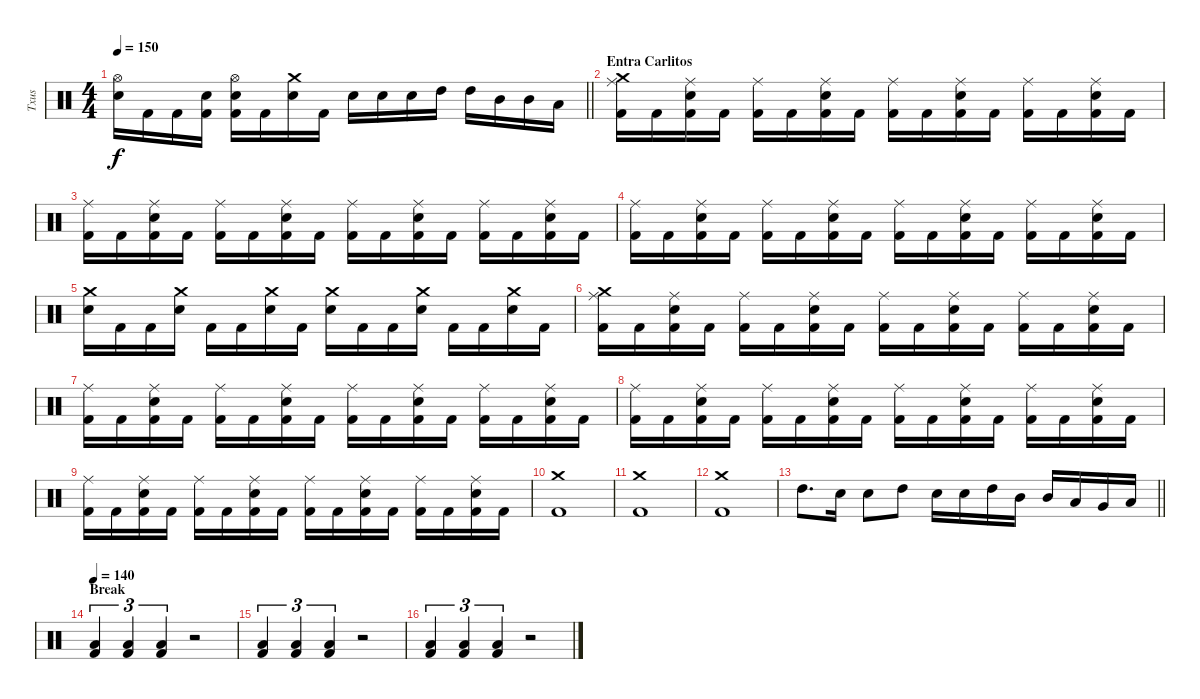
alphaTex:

\track ("Txus" "Txus") {instrument percussion}
\staff {score}
\articulation defaults
\ts (4 4)
\tempo 150
\clef neutral
\barLineRight lightlight
\ks c
("Hi-Hat (open)" "Electric Snare (hit)").16{dy f} "Kick (hit) 2".16 "Kick (hit) 2".16 ("Electric Snare (hit)" "Kick (hit) 2").16 ("Hi-Hat (open)" "Electric Snare (hit)" "Kick (hit) 2").16 "Kick (hit) 2".16 ("Crash medium (hit)" "Electric Snare (hit)").16 "Kick (hit) 2".16 "Electric Snare (hit)".16 "Electric Snare (hit)".16 "Electric Snare (hit)".16 "High Tom (hit)".16 "High Tom (hit)".16 "Mid Tom (hit)".16 "Mid Tom (hit)".16 "Low Tom (hit)".16 |
\section ("" "Entra Carlitos")
("Crash medium (hit)" "Ride (middle)" "Kick (hit) 2").16 "Kick (hit) 2".16 ("Ride (middle)" "Electric Snare (hit)" "Kick (hit) 2").16 "Kick (hit) 2".16 ("Ride (middle)" "Kick (hit) 2").16 "Kick (hit) 2".16 ("Ride (middle)" "Electric Snare (hit)" "Kick (hit) 2").16 "Kick (hit) 2".16 ("Ride (middle)" "Kick (hit) 2").16 "Kick (hit) 2".16 ("Ride (middle)" "Electric Snare (hit)" "Kick (hit) 2").16 "Kick (hit) 2".16 ("Ride (middle)" "Kick (hit) 2").16 "Kick (hit) 2".16 ("Ride (middle)" "Electric Snare (hit)" "Kick (hit) 2").16 "Kick (hit) 2".16 |
("Ride (middle)" "Kick (hit) 2").16 "Kick (hit) 2".16 ("Ride (middle)" "Electric Snare (hit)" "Kick (hit) 2").16 "Kick (hit) 2".16 ("Ride (middle)" "Kick (hit) 2").16 "Kick (hit) 2".16 ("Ride (middle)" "Electric Snare (hit)" "Kick (hit) 2").16 "Kick (hit) 2".16 ("Ride (middle)" "Kick (hit) 2").16 "Kick (hit) 2".16 ("Ride (middle)" "Electric Snare (hit)" "Kick (hit) 2").16 "Kick (hit) 2".16 ("Ride (middle)" "Kick (hit) 2").16 "Kick (hit) 2".16 ("Ride (middle)" "Electric Snare (hit)" "Kick (hit) 2").16 "Kick (hit) 2".16 |
("Ride (middle)" "Kick (hit) 2").16 "Kick (hit) 2".16 ("Ride (middle)" "Electric Snare (hit)" "Kick (hit) 2").16 "Kick (hit) 2".16 ("Ride (middle)" "Kick (hit) 2").16 "Kick (hit) 2".16 ("Ride (middle)" "Electric Snare (hit)" "Kick (hit) 2").16 "Kick (hit) 2".16 ("Ride (middle)" "Kick (hit) 2").16 "Kick (hit) 2".16 ("Ride (middle)" "Electric Snare (hit)" "Kick (hit) 2").16 "Kick (hit) 2".16 ("Ride (middle)" "Kick (hit) 2").16 "Kick (hit) 2".16 ("Ride (middle)" "Electric Snare (hit)" "Kick (hit) 2").16 "Kick (hit) 2".16 |
("Crash medium (hit)" "Electric Snare (hit)").16 "Kick (hit) 2".16 "Kick (hit) 2".16 ("Crash medium (hit)" "Electric Snare (hit)").16 "Kick (hit) 2".16 "Kick (hit) 2".16 ("Crash medium (hit)" "Electric Snare (hit)").16 "Kick (hit) 2".16 ("Crash medium (hit)" "Electric Snare (hit)").16 "Kick (hit) 2".16 "Kick (hit) 2".16 ("Crash medium (hit)" "Electric Snare (hit)").16 "Kick (hit) 2".16 "Kick (hit) 2".16 ("Crash medium (hit)" "Electric Snare (hit)").16 "Kick (hit) 2".16 |
("Crash medium (hit)" "Ride (middle)" "Kick (hit) 2").16 "Kick (hit) 2".16 ("Ride (middle)" "Electric Snare (hit)" "Kick (hit) 2").16 "Kick (hit) 2".16 ("Ride (middle)" "Kick (hit) 2").16 "Kick (hit) 2".16 ("Ride (middle)" "Electric Snare (hit)" "Kick (hit) 2").16 "Kick (hit) 2".16 ("Ride (middle)" "Kick (hit) 2").16 "Kick (hit) 2".16 ("Ride (middle)" "Electric Snare (hit)" "Kick (hit) 2").16 "Kick (hit) 2".16 ("Ride (middle)" "Kick (hit) 2").16 "Kick (hit) 2".16 ("Ride (middle)" "Electric Snare (hit)" "Kick (hit) 2").16 "Kick (hit) 2".16 |
("Ride (middle)" "Kick (hit) 2").16 "Kick (hit) 2".16 ("Ride (middle)" "Electric Snare (hit)" "Kick (hit) 2").16 "Kick (hit) 2".16 ("Ride (middle)" "Kick (hit) 2").16 "Kick (hit) 2".16 ("Ride (middle)" "Electric Snare (hit)" "Kick (hit) 2").16 "Kick (hit) 2".16 ("Ride (middle)" "Kick (hit) 2").16 "Kick (hit) 2".16 ("Ride (middle)" "Electric Snare (hit)" "Kick (hit) 2").16 "Kick (hit) 2".16 ("Ride (middle)" "Kick (hit) 2").16 "Kick (hit) 2".16 ("Ride (middle)" "Electric Snare (hit)" "Kick (hit) 2").16 "Kick (hit) 2".16 |
("Ride (middle)" "Kick (hit) 2").16 "Kick (hit) 2".16 ("Ride (middle)" "Electric Snare (hit)" "Kick (hit) 2").16 "Kick (hit) 2".16 ("Ride (middle)" "Kick (hit) 2").16 "Kick (hit) 2".16 ("Ride (middle)" "Electric Snare (hit)" "Kick (hit) 2").16 "Kick (hit) 2".16 ("Ride (middle)" "Kick (hit) 2").16 "Kick (hit) 2".16 ("Ride (middle)" "Electric Snare (hit)" "Kick (hit) 2").16 "Kick (hit) 2".16 ("Ride (middle)" "Kick (hit) 2").16 "Kick (hit) 2".16 ("Ride (middle)" "Electric Snare (hit)" "Kick (hit) 2").16 "Kick (hit) 2".16 |
("Ride (middle)" "Kick (hit) 2").16 "Kick (hit) 2".16 ("Ride (middle)" "Electric Snare (hit)" "Kick (hit) 2").16 "Kick (hit) 2".16 ("Ride (middle)" "Kick (hit) 2").16 "Kick (hit) 2".16 ("Ride (middle)" "Electric Snare (hit)" "Kick (hit) 2").16 "Kick (hit) 2".16 ("Ride (middle)" "Kick (hit) 2").16 "Kick (hit) 2".16 ("Ride (middle)" "Electric Snare (hit)" "Kick (hit) 2").16 "Kick (hit) 2".16 ("Ride (middle)" "Kick (hit) 2").16 "Kick (hit) 2".16 ("Ride (middle)" "Electric Snare (hit)" "Kick (hit) 2").16 "Kick (hit) 2".16 |
("Crash medium (hit)" "Kick (hit) 2").1 |
("Crash medium (hit)" "Kick (hit) 2").1 |
("Crash medium (hit)" "Kick (hit) 2").1 |
\barLineRight lightlight "High Tom (hit)".8{d} "Electric Snare (hit)".16 "Electric Snare (hit)".8 "High Tom (hit)".8 "Electric Snare (hit)".16 "Electric Snare (hit)".16 "High Tom (hit)".16 "Mid Tom (hit)".16 "Mid Tom (hit)".16 "Low Tom (hit)".16 "Very Low Tom (hit)".16 "Low Floor Tom (hit)".16
|
\section ("" "Break")
\tempo 140
("Low Floor Tom (hit)" "Kick (hit) 2").4{tu (3 2)} ("Low Floor Tom (hit)" "Kick (hit) 2").4{tu (3 2)} ("Low Floor Tom (hit)" "Kick (hit) 2").4{tu (3 2)} r.2 |
("Low Floor Tom (hit)" "Kick (hit) 2").4{tu (3 2)} ("Low Floor Tom (hit)" "Kick (hit) 2").4{tu (3 2)} ("Low Floor Tom (hit)" "Kick (hit) 2").4{tu (3 2)} r.2 |
("Low Floor Tom (hit)" "Kick (hit) 2").4{tu (3 2)} ("Low Floor Tom (hit)" "Kick (hit) 2").4{tu (3 2)} ("Low Floor Tom (hit)" "Kick (hit) 2").4{tu (3 2)} r.2
